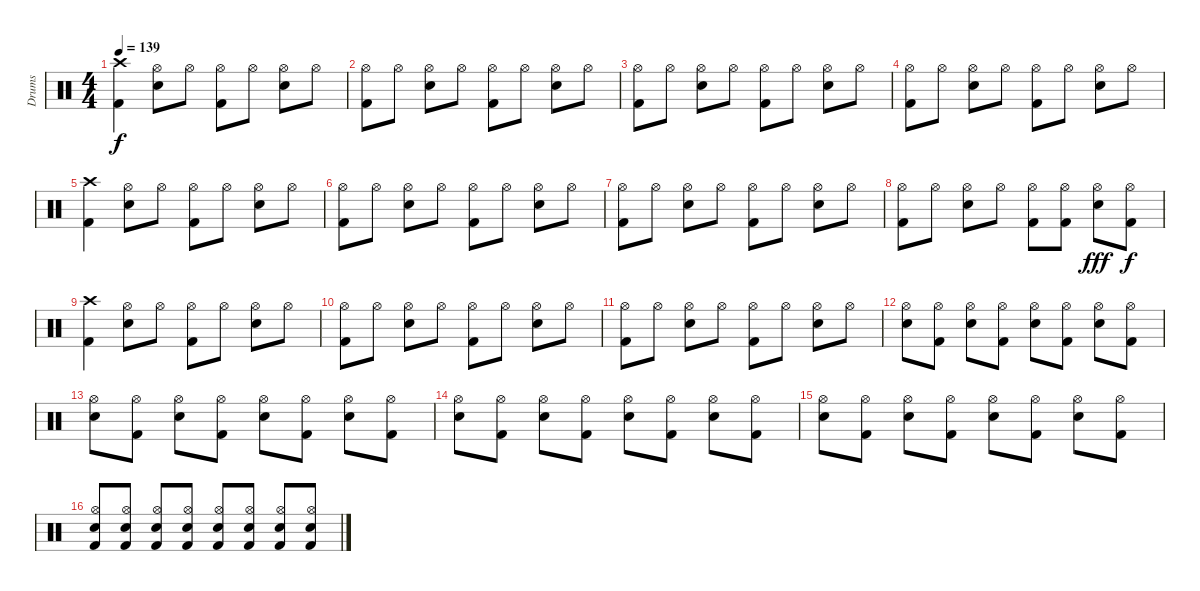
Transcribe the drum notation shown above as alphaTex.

\track ("Drums" "Drums") {instrument percussion}
\staff {score}
\articulation defaults
\ts (4 4)
\tempo 139
\clef neutral
\ks c
("Crash high (hit)" "Kick (hit) 2").4{dy f} ("Hi-Hat (open)" "Electric Snare (hit)").8 "Hi-Hat (open)".8 ("Hi-Hat (open)" "Kick (hit) 2").8 "Hi-Hat (open)".8 ("Hi-Hat (open)" "Electric Snare (hit)").8 "Hi-Hat (open)".8 |
("Hi-Hat (open)" "Kick (hit) 2").8 "Hi-Hat (open)".8 ("Hi-Hat (open)" "Electric Snare (hit)").8 "Hi-Hat (open)".8 ("Hi-Hat (open)" "Kick (hit) 2").8 "Hi-Hat (open)".8 ("Hi-Hat (open)" "Electric Snare (hit)").8 "Hi-Hat (open)".8 |
("Hi-Hat (open)" "Kick (hit) 2").8 "Hi-Hat (open)".8 ("Hi-Hat (open)" "Electric Snare (hit)").8 "Hi-Hat (open)".8 ("Hi-Hat (open)" "Kick (hit) 2").8 "Hi-Hat (open)".8 ("Hi-Hat (open)" "Electric Snare (hit)").8 "Hi-Hat (open)".8 |
("Hi-Hat (open)" "Kick (hit) 2").8 "Hi-Hat (open)".8 ("Hi-Hat (open)" "Electric Snare (hit)").8 "Hi-Hat (open)".8 ("Hi-Hat (open)" "Kick (hit) 2").8 "Hi-Hat (open)".8 ("Hi-Hat (open)" "Electric Snare (hit)").8 "Hi-Hat (open)".8 |
("Crash high (hit)" "Kick (hit) 2").4 ("Hi-Hat (open)" "Electric Snare (hit)").8 "Hi-Hat (open)".8 ("Hi-Hat (open)" "Kick (hit) 2").8 "Hi-Hat (open)".8 ("Hi-Hat (open)" "Electric Snare (hit)").8 "Hi-Hat (open)".8 |
("Hi-Hat (open)" "Kick (hit) 2").8 "Hi-Hat (open)".8 ("Hi-Hat (open)" "Electric Snare (hit)").8 "Hi-Hat (open)".8 ("Hi-Hat (open)" "Kick (hit) 2").8 "Hi-Hat (open)".8 ("Hi-Hat (open)" "Electric Snare (hit)").8 "Hi-Hat (open)".8 |
("Hi-Hat (open)" "Kick (hit) 2").8 "Hi-Hat (open)".8 ("Hi-Hat (open)" "Electric Snare (hit)").8 "Hi-Hat (open)".8 ("Hi-Hat (open)" "Kick (hit) 2").8 "Hi-Hat (open)".8 ("Hi-Hat (open)" "Electric Snare (hit)").8 "Hi-Hat (open)".8 |
("Hi-Hat (open)" "Kick (hit) 2").8 "Hi-Hat (open)".8 ("Hi-Hat (open)" "Electric Snare (hit)").8 "Hi-Hat (open)".8 ("Hi-Hat (open)" "Kick (hit) 2").8 ("Hi-Hat (open)" "Kick (hit) 2").8 ("Hi-Hat (open)" "Electric Snare (hit)").8{dy fff} ("Hi-Hat (open)" "Kick (hit) 2").8{dy f} |
("Crash high (hit)" "Kick (hit) 2").4 ("Hi-Hat (open)" "Electric Snare (hit)").8 "Hi-Hat (open)".8 ("Hi-Hat (open)" "Kick (hit) 2").8 "Hi-Hat (open)".8 ("Hi-Hat (open)" "Electric Snare (hit)").8 "Hi-Hat (open)".8 |
("Hi-Hat (open)" "Kick (hit) 2").8 "Hi-Hat (open)".8 ("Hi-Hat (open)" "Electric Snare (hit)").8 "Hi-Hat (open)".8 ("Hi-Hat (open)" "Kick (hit) 2").8 "Hi-Hat (open)".8 ("Hi-Hat (open)" "Electric Snare (hit)").8 "Hi-Hat (open)".8 |
("Hi-Hat (open)" "Kick (hit) 2").8 "Hi-Hat (open)".8 ("Hi-Hat (open)" "Electric Snare (hit)").8 "Hi-Hat (open)".8 ("Hi-Hat (open)" "Kick (hit) 2").8 "Hi-Hat (open)".8 ("Hi-Hat (open)" "Electric Snare (hit)").8 "Hi-Hat (open)".8 |
("Hi-Hat (open)" "Electric Snare (hit)").8 ("Hi-Hat (open)" "Kick (hit) 2").8 ("Hi-Hat (open)" "Electric Snare (hit)").8 ("Hi-Hat (open)" "Kick (hit) 2").8 ("Hi-Hat (open)" "Electric Snare (hit)").8 ("Hi-Hat (open)" "Kick (hit) 2").8 ("Hi-Hat (open)" "Electric Snare (hit)").8 ("Hi-Hat (open)" "Kick (hit) 2").8 |
("Hi-Hat (open)" "Electric Snare (hit)").8 ("Hi-Hat (open)" "Kick (hit) 2").8 ("Hi-Hat (open)" "Electric Snare (hit)").8 ("Hi-Hat (open)" "Kick (hit) 2").8 ("Hi-Hat (open)" "Electric Snare (hit)").8 ("Hi-Hat (open)" "Kick (hit) 2").8 ("Hi-Hat (open)" "Electric Snare (hit)").8 ("Hi-Hat (open)" "Kick (hit) 2").8 |
("Hi-Hat (open)" "Electric Snare (hit)").8 ("Hi-Hat (open)" "Kick (hit) 2").8 ("Hi-Hat (open)" "Electric Snare (hit)").8 ("Hi-Hat (open)" "Kick (hit) 2").8 ("Hi-Hat (open)" "Electric Snare (hit)").8 ("Hi-Hat (open)" "Kick (hit) 2").8 ("Hi-Hat (open)" "Electric Snare (hit)").8 ("Hi-Hat (open)" "Kick (hit) 2").8 |
("Hi-Hat (open)" "Electric Snare (hit)").8 ("Hi-Hat (open)" "Kick (hit) 2").8 ("Hi-Hat (open)" "Electric Snare (hit)").8 ("Hi-Hat (open)" "Kick (hit) 2").8 ("Hi-Hat (open)" "Electric Snare (hit)").8 ("Hi-Hat (open)" "Kick (hit) 2").8 ("Hi-Hat (open)" "Electric Snare (hit)").8 ("Hi-Hat (open)" "Kick (hit) 2").8 |
("Hi-Hat (open)" "Electric Snare (hit)" "Kick (hit) 2").8 ("Hi-Hat (open)" "Electric Snare (hit)" "Kick (hit) 2").8 ("Hi-Hat (open)" "Electric Snare (hit)" "Kick (hit) 2").8 ("Hi-Hat (open)" "Electric Snare (hit)" "Kick (hit) 2").8 ("Hi-Hat (open)" "Electric Snare (hit)" "Kick (hit) 2").8 ("Hi-Hat (open)" "Electric Snare (hit)" "Kick (hit) 2").8 ("Hi-Hat (open)" "Electric Snare (hit)" "Kick (hit) 2").8 ("Hi-Hat (open)" "Electric Snare (hit)" "Kick (hit) 2").8
